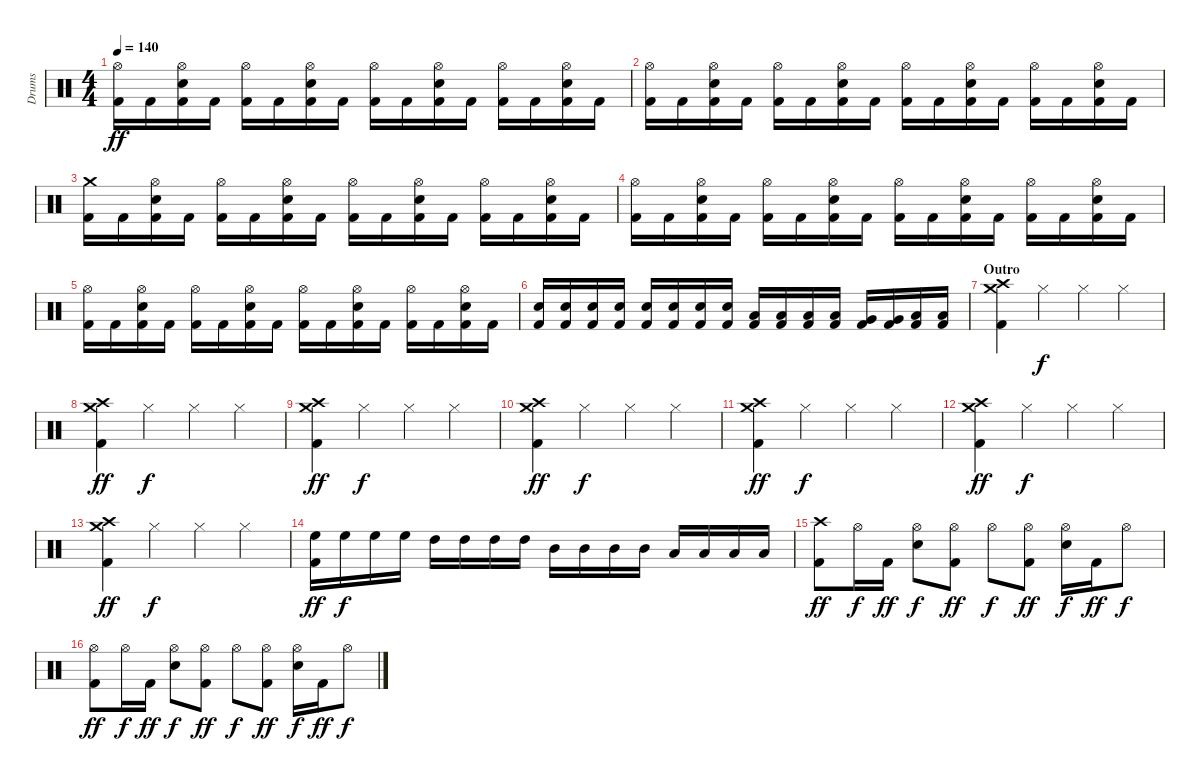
\track ("Drums" "Drums") {instrument percussion}
\staff {score}
\articulation defaults
\ts (4 4)
\tempo 140
\clef neutral
\ks c
("Hi-Hat (open)" "Kick (hit) 2").16{dy ff} "Kick (hit) 2".16 ("Hi-Hat (open)" "Electric Snare (hit)" "Kick (hit) 2").16 "Kick (hit) 2".16 ("Hi-Hat (open)" "Kick (hit) 2").16 "Kick (hit) 2".16 ("Hi-Hat (open)" "Electric Snare (hit)" "Kick (hit) 2").16 "Kick (hit) 2".16 ("Hi-Hat (open)" "Kick (hit) 2").16 "Kick (hit) 2".16 ("Hi-Hat (open)" "Electric Snare (hit)" "Kick (hit) 2").16 "Kick (hit) 2".16 ("Hi-Hat (open)" "Kick (hit) 2").16 "Kick (hit) 2".16 ("Hi-Hat (open)" "Electric Snare (hit)" "Kick (hit) 2").16 "Kick (hit) 2".16 |
("Hi-Hat (open)" "Kick (hit) 2").16 "Kick (hit) 2".16 ("Hi-Hat (open)" "Electric Snare (hit)" "Kick (hit) 2").16 "Kick (hit) 2".16 ("Hi-Hat (open)" "Kick (hit) 2").16 "Kick (hit) 2".16 ("Hi-Hat (open)" "Electric Snare (hit)" "Kick (hit) 2").16 "Kick (hit) 2".16 ("Hi-Hat (open)" "Kick (hit) 2").16 "Kick (hit) 2".16 ("Hi-Hat (open)" "Electric Snare (hit)" "Kick (hit) 2").16 "Kick (hit) 2".16 ("Hi-Hat (open)" "Kick (hit) 2").16 "Kick (hit) 2".16 ("Hi-Hat (open)" "Electric Snare (hit)" "Kick (hit) 2").16 "Kick (hit) 2".16 |
("Crash medium (hit)" "Kick (hit) 2").16 "Kick (hit) 2".16 ("Hi-Hat (open)" "Electric Snare (hit)" "Kick (hit) 2").16 "Kick (hit) 2".16 ("Hi-Hat (open)" "Kick (hit) 2").16 "Kick (hit) 2".16 ("Hi-Hat (open)" "Electric Snare (hit)" "Kick (hit) 2").16 "Kick (hit) 2".16 ("Hi-Hat (open)" "Kick (hit) 2").16 "Kick (hit) 2".16 ("Hi-Hat (open)" "Electric Snare (hit)" "Kick (hit) 2").16 "Kick (hit) 2".16 ("Hi-Hat (open)" "Kick (hit) 2").16 "Kick (hit) 2".16 ("Hi-Hat (open)" "Electric Snare (hit)" "Kick (hit) 2").16 "Kick (hit) 2".16 |
("Hi-Hat (open)" "Kick (hit) 2").16 "Kick (hit) 2".16 ("Hi-Hat (open)" "Electric Snare (hit)" "Kick (hit) 2").16 "Kick (hit) 2".16 ("Hi-Hat (open)" "Kick (hit) 2").16 "Kick (hit) 2".16 ("Hi-Hat (open)" "Electric Snare (hit)" "Kick (hit) 2").16 "Kick (hit) 2".16 ("Hi-Hat (open)" "Kick (hit) 2").16 "Kick (hit) 2".16 ("Hi-Hat (open)" "Electric Snare (hit)" "Kick (hit) 2").16 "Kick (hit) 2".16 ("Hi-Hat (open)" "Kick (hit) 2").16 "Kick (hit) 2".16 ("Hi-Hat (open)" "Electric Snare (hit)" "Kick (hit) 2").16 "Kick (hit) 2".16 |
("Hi-Hat (open)" "Kick (hit) 2").16 "Kick (hit) 2".16 ("Hi-Hat (open)" "Electric Snare (hit)" "Kick (hit) 2").16 "Kick (hit) 2".16 ("Hi-Hat (open)" "Kick (hit) 2").16 "Kick (hit) 2".16 ("Hi-Hat (open)" "Electric Snare (hit)" "Kick (hit) 2").16 "Kick (hit) 2".16 ("Hi-Hat (open)" "Kick (hit) 2").16 "Kick (hit) 2".16 ("Hi-Hat (open)" "Electric Snare (hit)" "Kick (hit) 2").16 "Kick (hit) 2".16 ("Hi-Hat (open)" "Kick (hit) 2").16 "Kick (hit) 2".16 ("Hi-Hat (open)" "Electric Snare (hit)" "Kick (hit) 2").16 "Kick (hit) 2".16 |
("Electric Snare (hit)" "Kick (hit) 2").16 ("Electric Snare (hit)" "Kick (hit) 2").16 ("Electric Snare (hit)" "Kick (hit) 2").16 ("Electric Snare (hit)" "Kick (hit) 2").16 ("Electric Snare (hit)" "Kick (hit) 2").16 ("Electric Snare (hit)" "Kick (hit) 2").16 ("Electric Snare (hit)" "Kick (hit) 2").16 ("Electric Snare (hit)" "Kick (hit) 2").16 ("Low Tom (hit)" "Kick (hit) 2").16 ("Low Tom (hit)" "Kick (hit) 2").16 ("Low Tom (hit)" "Kick (hit) 2").16 ("Low Tom (hit)" "Kick (hit) 2").16 ("Very Low Tom (hit)" "Kick (hit) 2").16 ("Very Low Tom (hit)" "Kick (hit) 2").16 ("Low Floor Tom (hit)" "Kick (hit) 2").16 ("Low Floor Tom (hit)" "Kick (hit) 2").16 |
\section ("" "Outro")
("Crash medium (hit)" "Crash high (hit)" "Kick (hit) 2").4 "Hi-Hat (closed)".4{dy f} "Hi-Hat (closed)".4 "Hi-Hat (closed)".4 |
("Crash medium (hit)" "Crash high (hit)" "Kick (hit) 2").4{dy ff} "Hi-Hat (closed)".4{dy f} "Hi-Hat (closed)".4 "Hi-Hat (closed)".4 |
("Crash medium (hit)" "Crash high (hit)" "Kick (hit) 2").4{dy ff} "Hi-Hat (closed)".4{dy f} "Hi-Hat (closed)".4 "Hi-Hat (closed)".4 |
("Crash medium (hit)" "Crash high (hit)" "Kick (hit) 2").4{dy ff} "Hi-Hat (closed)".4{dy f} "Hi-Hat (closed)".4 "Hi-Hat (closed)".4 |
("Crash medium (hit)" "Crash high (hit)" "Kick (hit) 2").4{dy ff} "Hi-Hat (closed)".4{dy f} "Hi-Hat (closed)".4 "Hi-Hat (closed)".4 |
("Crash medium (hit)" "Crash high (hit)" "Kick (hit) 2").4{dy ff} "Hi-Hat (closed)".4{dy f} "Hi-Hat (closed)".4 "Hi-Hat (closed)".4 |
("Crash medium (hit)" "Crash high (hit)" "Kick (hit) 2").4{dy ff} "Hi-Hat (closed)".4{dy f} "Hi-Hat (closed)".4 "Hi-Hat (closed)".4 |
("High Floor Tom (hit)" "Kick (hit) 2").16{dy ff} "High Floor Tom (hit)".16{dy f} "High Floor Tom (hit)".16 "High Floor Tom (hit)".16 "High Tom (hit)".16 "High Tom (hit)".16 "High Tom (hit)".16 "High Tom (hit)".16 "Mid Tom (hit)".16 "Mid Tom (hit)".16 "Mid Tom (hit)".16 "Mid Tom (hit)".16 "Low Tom (hit)".16 "Low Tom (hit)".16 "Low Tom (hit)".16 "Low Tom (hit)".16 |
("Crash high (hit)" "Kick (hit) 2").8{dy ff} "Hi-Hat (open)".16{dy f} "Kick (hit) 2".16{dy ff} ("Hi-Hat (open)" "Electric Snare (hit)").8{dy f} ("Hi-Hat (open)" "Kick (hit) 2").8{dy ff} "Hi-Hat (open)".8{dy f} ("Hi-Hat (open)" "Kick (hit) 2").8{dy ff} ("Hi-Hat (open)" "Electric Snare (hit)").16{dy f} "Kick (hit) 2".16{dy ff} "Hi-Hat (open)".8{dy f} |
("Hi-Hat (open)" "Kick (hit) 2").8{dy ff} "Hi-Hat (open)".16{dy f} "Kick (hit) 2".16{dy ff} ("Hi-Hat (open)" "Electric Snare (hit)").8{dy f} ("Hi-Hat (open)" "Kick (hit) 2").8{dy ff} "Hi-Hat (open)".8{dy f} ("Hi-Hat (open)" "Kick (hit) 2").8{dy ff} ("Hi-Hat (open)" "Electric Snare (hit)").16{dy f} "Kick (hit) 2".16{dy ff} "Hi-Hat (open)".8{dy f}
